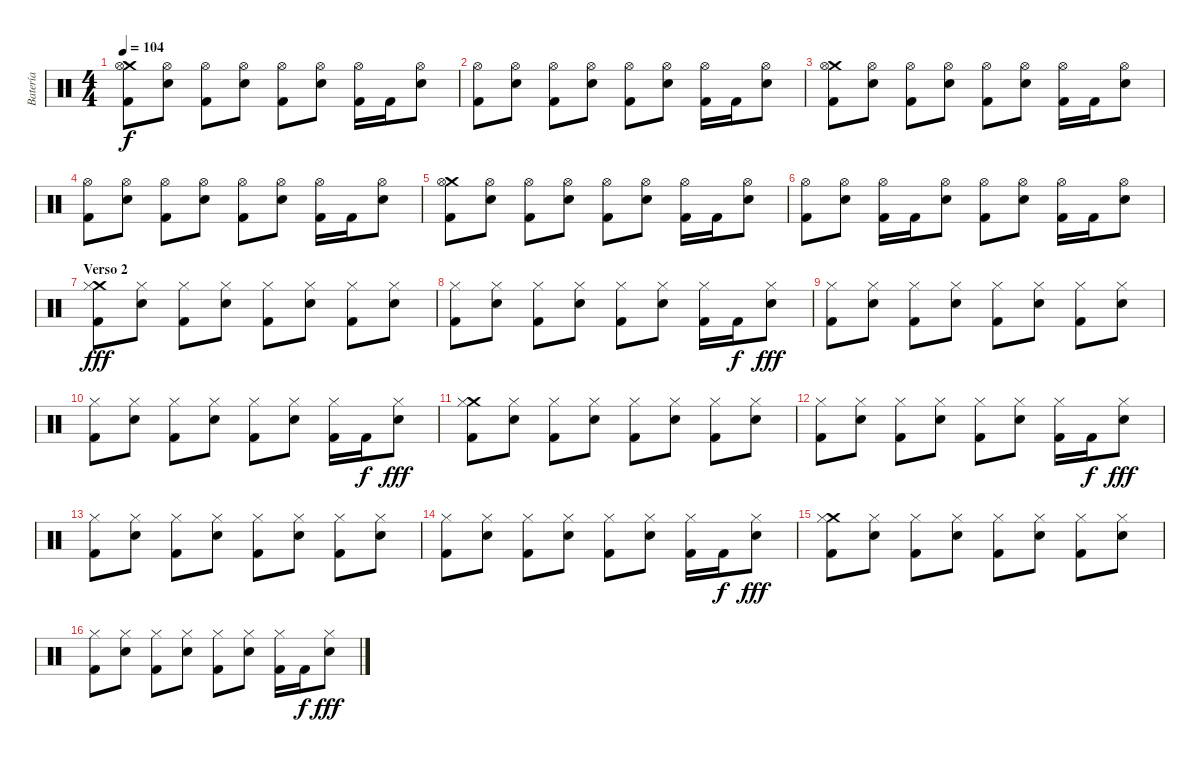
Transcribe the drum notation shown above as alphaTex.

\track ("Batería" "Batería") {instrument percussion}
\staff {score}
\articulation defaults
\ts (4 4)
\tempo 104
\clef neutral
\ks c
("Crash medium (hit)" "Hi-Hat (open)" "Kick (hit) 2").8{dy f} ("Hi-Hat (open)" "Snare (hit) 2").8 ("Hi-Hat (open)" "Kick (hit) 2").8 ("Hi-Hat (open)" "Snare (hit) 2").8 ("Hi-Hat (open)" "Kick (hit) 2").8 ("Hi-Hat (open)" "Snare (hit) 2").8 ("Hi-Hat (open)" "Kick (hit) 2").16 "Kick (hit) 2".16 ("Hi-Hat (open)" "Snare (hit) 2").8 |
("Hi-Hat (open)" "Kick (hit) 2").8 ("Hi-Hat (open)" "Snare (hit) 2").8 ("Hi-Hat (open)" "Kick (hit) 2").8 ("Hi-Hat (open)" "Snare (hit) 2").8 ("Hi-Hat (open)" "Kick (hit) 2").8 ("Hi-Hat (open)" "Snare (hit) 2").8 ("Hi-Hat (open)" "Kick (hit) 2").16 "Kick (hit) 2".16 ("Hi-Hat (open)" "Snare (hit) 2").8 |
("Crash medium (hit)" "Hi-Hat (open)" "Kick (hit) 2").8 ("Hi-Hat (open)" "Snare (hit) 2").8 ("Hi-Hat (open)" "Kick (hit) 2").8 ("Hi-Hat (open)" "Snare (hit) 2").8 ("Hi-Hat (open)" "Kick (hit) 2").8 ("Hi-Hat (open)" "Snare (hit) 2").8 ("Hi-Hat (open)" "Kick (hit) 2").16 "Kick (hit) 2".16 ("Hi-Hat (open)" "Snare (hit) 2").8 |
("Hi-Hat (open)" "Kick (hit) 2").8 ("Hi-Hat (open)" "Snare (hit) 2").8 ("Hi-Hat (open)" "Kick (hit) 2").8 ("Hi-Hat (open)" "Snare (hit) 2").8 ("Hi-Hat (open)" "Kick (hit) 2").8 ("Hi-Hat (open)" "Snare (hit) 2").8 ("Hi-Hat (open)" "Kick (hit) 2").16 "Kick (hit) 2".16 ("Hi-Hat (open)" "Snare (hit) 2").8 |
("Crash medium (hit)" "Hi-Hat (open)" "Kick (hit) 2").8 ("Hi-Hat (open)" "Snare (hit) 2").8 ("Hi-Hat (open)" "Kick (hit) 2").8 ("Hi-Hat (open)" "Snare (hit) 2").8 ("Hi-Hat (open)" "Kick (hit) 2").8 ("Hi-Hat (open)" "Snare (hit) 2").8 ("Hi-Hat (open)" "Kick (hit) 2").16 "Kick (hit) 2".16 ("Hi-Hat (open)" "Snare (hit) 2").8 |
("Hi-Hat (open)" "Kick (hit) 2").8 ("Hi-Hat (open)" "Snare (hit) 2").8 ("Hi-Hat (open)" "Kick (hit) 2").16 "Kick (hit) 2".16 ("Hi-Hat (open)" "Snare (hit) 2").8 ("Hi-Hat (open)" "Kick (hit) 2").8 ("Hi-Hat (open)" "Snare (hit) 2").8 ("Hi-Hat (open)" "Kick (hit) 2").16 "Kick (hit) 2".16 ("Hi-Hat (open)" "Snare (hit) 2").8 |
\section ("" "Verso 2")
("Crash medium (hit)" "Hi-Hat (closed)" "Kick (hit) 2").8{dy fff} ("Hi-Hat (closed)" "Snare (hit) 2").8 ("Hi-Hat (closed)" "Kick (hit) 2").8 ("Hi-Hat (closed)" "Snare (hit) 2").8 ("Hi-Hat (closed)" "Kick (hit) 2").8 ("Hi-Hat (closed)" "Snare (hit) 2").8 ("Hi-Hat (closed)" "Kick (hit) 2").8 ("Hi-Hat (closed)" "Snare (hit) 2").8 |
("Hi-Hat (closed)" "Kick (hit) 2").8 ("Hi-Hat (closed)" "Snare (hit) 2").8 ("Hi-Hat (closed)" "Kick (hit) 2").8 ("Hi-Hat (closed)" "Snare (hit) 2").8 ("Hi-Hat (closed)" "Kick (hit) 2").8 ("Hi-Hat (closed)" "Snare (hit) 2").8 ("Hi-Hat (closed)" "Kick (hit) 2").16 "Kick (hit) 2".16{dy f} ("Hi-Hat (closed)" "Snare (hit) 2").8{dy fff} |
("Hi-Hat (closed)" "Kick (hit) 2").8 ("Hi-Hat (closed)" "Snare (hit) 2").8 ("Hi-Hat (closed)" "Kick (hit) 2").8 ("Hi-Hat (closed)" "Snare (hit) 2").8 ("Hi-Hat (closed)" "Kick (hit) 2").8 ("Hi-Hat (closed)" "Snare (hit) 2").8 ("Hi-Hat (closed)" "Kick (hit) 2").8 ("Hi-Hat (closed)" "Snare (hit) 2").8 |
("Hi-Hat (closed)" "Kick (hit) 2").8 ("Hi-Hat (closed)" "Snare (hit) 2").8 ("Hi-Hat (closed)" "Kick (hit) 2").8 ("Hi-Hat (closed)" "Snare (hit) 2").8 ("Hi-Hat (closed)" "Kick (hit) 2").8 ("Hi-Hat (closed)" "Snare (hit) 2").8 ("Hi-Hat (closed)" "Kick (hit) 2").16 "Kick (hit) 2".16{dy f} ("Hi-Hat (closed)" "Snare (hit) 2").8{dy fff} |
("Crash medium (hit)" "Hi-Hat (closed)" "Kick (hit) 2").8 ("Hi-Hat (closed)" "Snare (hit) 2").8 ("Hi-Hat (closed)" "Kick (hit) 2").8 ("Hi-Hat (closed)" "Snare (hit) 2").8 ("Hi-Hat (closed)" "Kick (hit) 2").8 ("Hi-Hat (closed)" "Snare (hit) 2").8 ("Hi-Hat (closed)" "Kick (hit) 2").8 ("Hi-Hat (closed)" "Snare (hit) 2").8 |
("Hi-Hat (closed)" "Kick (hit) 2").8 ("Hi-Hat (closed)" "Snare (hit) 2").8 ("Hi-Hat (closed)" "Kick (hit) 2").8 ("Hi-Hat (closed)" "Snare (hit) 2").8 ("Hi-Hat (closed)" "Kick (hit) 2").8 ("Hi-Hat (closed)" "Snare (hit) 2").8 ("Hi-Hat (closed)" "Kick (hit) 2").16 "Kick (hit) 2".16{dy f} ("Hi-Hat (closed)" "Snare (hit) 2").8{dy fff} |
("Hi-Hat (closed)" "Kick (hit) 2").8 ("Hi-Hat (closed)" "Snare (hit) 2").8 ("Hi-Hat (closed)" "Kick (hit) 2").8 ("Hi-Hat (closed)" "Snare (hit) 2").8 ("Hi-Hat (closed)" "Kick (hit) 2").8 ("Hi-Hat (closed)" "Snare (hit) 2").8 ("Hi-Hat (closed)" "Kick (hit) 2").8 ("Hi-Hat (closed)" "Snare (hit) 2").8 |
("Hi-Hat (closed)" "Kick (hit) 2").8 ("Hi-Hat (closed)" "Snare (hit) 2").8 ("Hi-Hat (closed)" "Kick (hit) 2").8 ("Hi-Hat (closed)" "Snare (hit) 2").8 ("Hi-Hat (closed)" "Kick (hit) 2").8 ("Hi-Hat (closed)" "Snare (hit) 2").8 ("Hi-Hat (closed)" "Kick (hit) 2").16 "Kick (hit) 2".16{dy f} ("Hi-Hat (closed)" "Snare (hit) 2").8{dy fff} |
("Crash medium (hit)" "Hi-Hat (closed)" "Kick (hit) 2").8 ("Hi-Hat (closed)" "Snare (hit) 2").8 ("Hi-Hat (closed)" "Kick (hit) 2").8 ("Hi-Hat (closed)" "Snare (hit) 2").8 ("Hi-Hat (closed)" "Kick (hit) 2").8 ("Hi-Hat (closed)" "Snare (hit) 2").8 ("Hi-Hat (closed)" "Kick (hit) 2").8 ("Hi-Hat (closed)" "Snare (hit) 2").8 |
("Hi-Hat (closed)" "Kick (hit) 2").8 ("Hi-Hat (closed)" "Snare (hit) 2").8 ("Hi-Hat (closed)" "Kick (hit) 2").8 ("Hi-Hat (closed)" "Snare (hit) 2").8 ("Hi-Hat (closed)" "Kick (hit) 2").8 ("Hi-Hat (closed)" "Snare (hit) 2").8 ("Hi-Hat (closed)" "Kick (hit) 2").16 "Kick (hit) 2".16{dy f} ("Hi-Hat (closed)" "Snare (hit) 2").8{dy fff}
